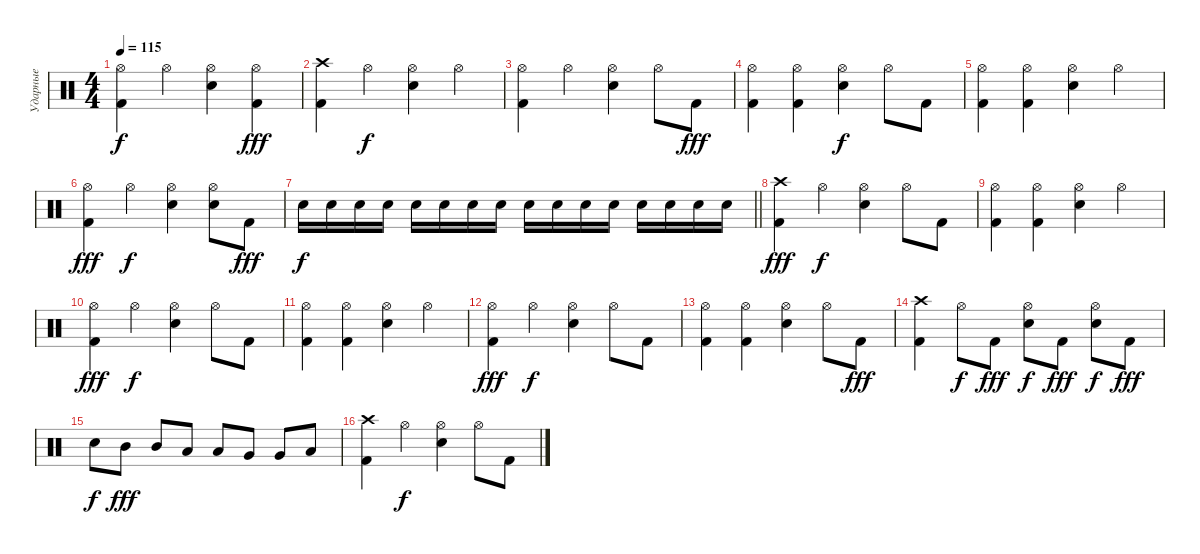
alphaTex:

\track ("Ударные" "Ударные") {instrument percussion}
\staff {score}
\articulation defaults
\ts (4 4)
\tempo 115
\clef neutral
\ks c
("Kick (hit) 2" "Hi-Hat (open)").4{dy f} "Hi-Hat (open)".4 ("Snare (hit) 2" "Hi-Hat (open)").4 ("Kick (hit) 2" "Hi-Hat (open)").4{dy fff} |
("Kick (hit) 2" "Crash high (hit)").4 "Hi-Hat (open)".4{dy f} ("Snare (hit) 2" "Hi-Hat (open)").4 "Hi-Hat (open)".4 |
("Kick (hit) 2" "Hi-Hat (open)").4 "Hi-Hat (open)".4 ("Snare (hit) 2" "Hi-Hat (open)").4 "Hi-Hat (open)".8 "Kick (hit) 2".8{dy fff} |
("Kick (hit) 2" "Hi-Hat (open)").4 ("Kick (hit) 2" "Hi-Hat (open)").4 ("Snare (hit) 2" "Hi-Hat (open)").4{dy f} "Hi-Hat (open)".8 "Kick (hit) 2".8 |
("Kick (hit) 2" "Hi-Hat (open)").4 ("Kick (hit) 2" "Hi-Hat (open)").4 ("Snare (hit) 2" "Hi-Hat (open)").4 "Hi-Hat (open)".4 |
("Kick (hit) 2" "Hi-Hat (open)").4{dy fff} "Hi-Hat (open)".4{dy f} ("Snare (hit) 2" "Hi-Hat (open)").4 ("Snare (hit) 2" "Hi-Hat (open)").8 "Kick (hit) 2".8{dy fff} |
\barLineRight lightlight "Snare (hit) 2".16{dy f} "Snare (hit) 2".16 "Snare (hit) 2".16 "Snare (hit) 2".16 "Snare (hit) 2".16 "Snare (hit) 2".16 "Snare (hit) 2".16 "Snare (hit) 2".16 "Snare (hit) 2".16 "Snare (hit) 2".16 "Snare (hit) 2".16 "Snare (hit) 2".16 "Snare (hit) 2".16 "Snare (hit) 2".16 "Snare (hit) 2".16 "Snare (hit) 2".16
|
("Kick (hit) 2" "Crash high (hit)").4{dy fff} "Hi-Hat (open)".4{dy f} ("Snare (hit) 2" "Hi-Hat (open)").4 "Hi-Hat (open)".8 "Kick (hit) 2".8 |
("Kick (hit) 2" "Hi-Hat (open)").4 ("Kick (hit) 2" "Hi-Hat (open)").4 ("Snare (hit) 2" "Hi-Hat (open)").4 "Hi-Hat (open)".4 |
("Kick (hit) 2" "Hi-Hat (open)").4{dy fff} "Hi-Hat (open)".4{dy f} ("Snare (hit) 2" "Hi-Hat (open)").4 "Hi-Hat (open)".8 "Kick (hit) 2".8 |
("Kick (hit) 2" "Hi-Hat (open)").4 ("Kick (hit) 2" "Hi-Hat (open)").4 ("Snare (hit) 2" "Hi-Hat (open)").4 "Hi-Hat (open)".4 |
("Kick (hit) 2" "Hi-Hat (open)").4{dy fff} "Hi-Hat (open)".4{dy f} ("Snare (hit) 2" "Hi-Hat (open)").4 "Hi-Hat (open)".8 "Kick (hit) 2".8 |
("Kick (hit) 2" "Hi-Hat (open)").4 ("Kick (hit) 2" "Hi-Hat (open)").4 ("Snare (hit) 2" "Hi-Hat (open)").4 "Hi-Hat (open)".8 "Kick (hit) 2".8{dy fff} |
("Kick (hit) 2" "Crash high (hit)").4 "Hi-Hat (open)".8{dy f} "Kick (hit) 2".8{dy fff} ("Snare (hit) 2" "Hi-Hat (open)").8{dy f} "Kick (hit) 2".8{dy fff} ("Snare (hit) 2" "Hi-Hat (open)").8{dy f} "Kick (hit) 2".8{dy fff} |
"Snare (hit) 2".8{dy f} "Mid Tom (hit)".8{dy fff} "Mid Tom (hit)".8 "Low Tom (hit)".8 "Low Tom (hit)".8 "Very Low Tom (hit)".8 "Very Low Tom (hit)".8 "Low Floor Tom (hit)".8 |
("Kick (hit) 2" "Crash high (hit)").4 "Hi-Hat (open)".4{dy f} ("Snare (hit) 2" "Hi-Hat (open)").4 "Hi-Hat (open)".8 "Kick (hit) 2".8
